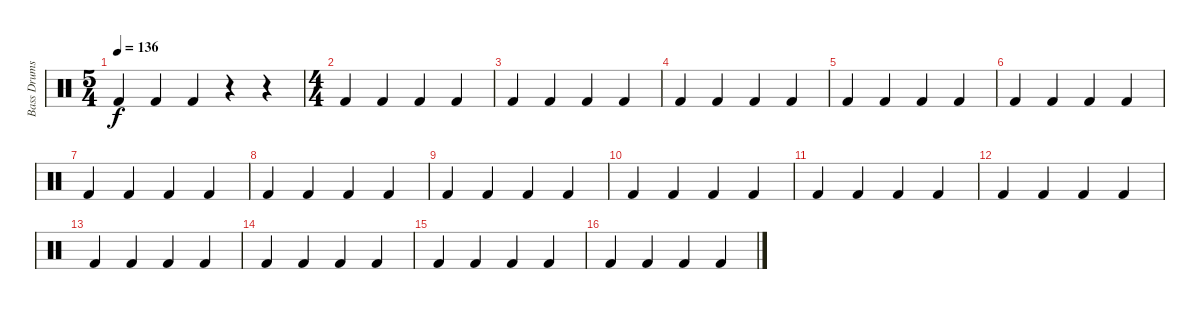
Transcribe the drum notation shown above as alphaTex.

\track ("Bass Drums" "Bass Drums") {instrument percussion}
\staff {score}
\articulation defaults
\ts (5 4)
\tempo 136
\clef neutral
\ks c "Kick (hit) 2".4{dy f} "Kick (hit) 2".4 "Kick (hit) 2".4
r.4 r.4 |
\ts (4 4)
"Kick (hit) 2".4 "Kick (hit) 2".4 "Kick (hit) 2".4 "Kick (hit) 2".4 |
"Kick (hit) 2".4 "Kick (hit) 2".4 "Kick (hit) 2".4 "Kick (hit) 2".4 |
"Kick (hit) 2".4 "Kick (hit) 2".4 "Kick (hit) 2".4 "Kick (hit) 2".4 |
"Kick (hit) 2".4 "Kick (hit) 2".4 "Kick (hit) 2".4 "Kick (hit) 2".4 |
"Kick (hit) 2".4 "Kick (hit) 2".4 "Kick (hit) 2".4 "Kick (hit) 2".4 |
"Kick (hit) 2".4 "Kick (hit) 2".4 "Kick (hit) 2".4 "Kick (hit) 2".4 |
"Kick (hit) 2".4 "Kick (hit) 2".4 "Kick (hit) 2".4 "Kick (hit) 2".4 |
"Kick (hit) 2".4 "Kick (hit) 2".4 "Kick (hit) 2".4 "Kick (hit) 2".4 |
"Kick (hit) 2".4 "Kick (hit) 2".4 "Kick (hit) 2".4 "Kick (hit) 2".4 |
"Kick (hit) 2".4 "Kick (hit) 2".4 "Kick (hit) 2".4 "Kick (hit) 2".4 |
"Kick (hit) 2".4 "Kick (hit) 2".4 "Kick (hit) 2".4 "Kick (hit) 2".4 |
"Kick (hit) 2".4 "Kick (hit) 2".4 "Kick (hit) 2".4 "Kick (hit) 2".4 |
"Kick (hit) 2".4 "Kick (hit) 2".4 "Kick (hit) 2".4 "Kick (hit) 2".4 |
"Kick (hit) 2".4 "Kick (hit) 2".4 "Kick (hit) 2".4 "Kick (hit) 2".4 |
"Kick (hit) 2".4 "Kick (hit) 2".4 "Kick (hit) 2".4 "Kick (hit) 2".4
